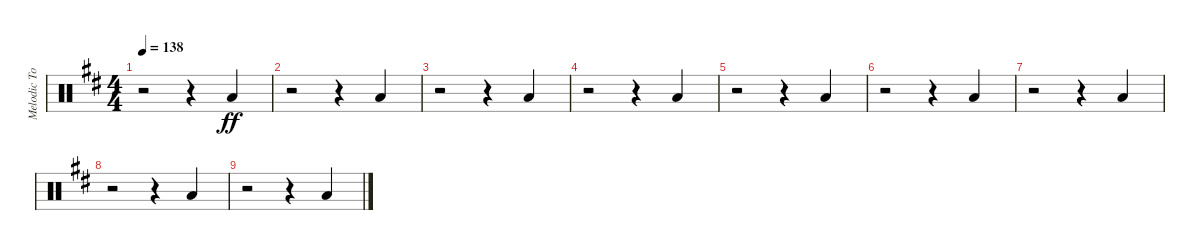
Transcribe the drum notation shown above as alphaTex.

\track ("Melodic Tom" "Melodic To") {instrument percussion}
\staff {score}
\articulation defaults
\ts (4 4)
\tempo 138
\clef neutral
\ks d
r.2{dy ff} r.4 "Low Tom (hit)".4 |
r.2 r.4 "Low Tom (hit)".4 |
r.2 r.4 "Low Tom (hit)".4 |
r.2 r.4 "Low Tom (hit)".4 |
r.2 r.4 "Low Tom (hit)".4 |
r.2 r.4 "Low Tom (hit)".4 |
r.2 r.4 "Low Tom (hit)".4 |
r.2 r.4 "Low Tom (hit)".4 |
r.2 r.4 "Low Tom (hit)".4
